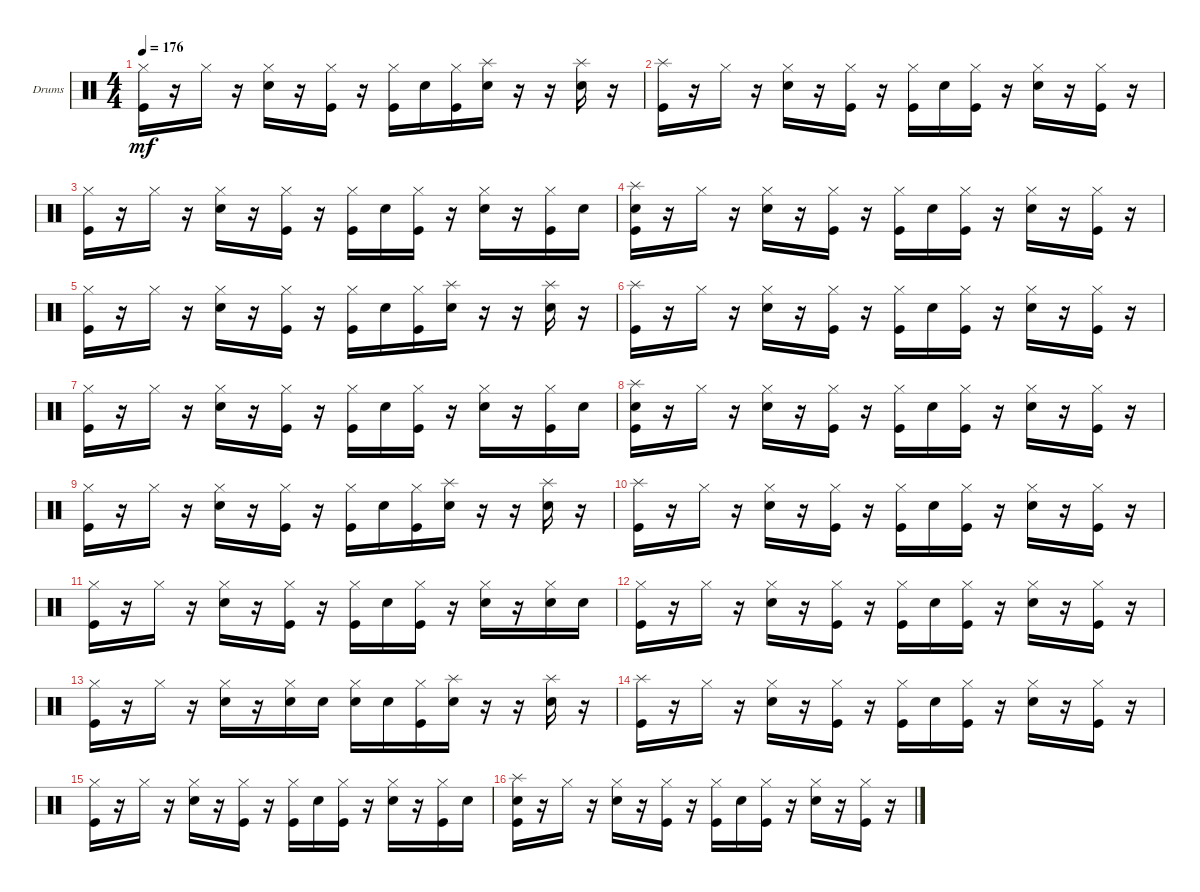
\defaultSystemsLayout 4
\bracketExtendMode groupsimilarinstruments
\firstSystemTrackNameOrientation horizontal
\otherSystemsTrackNameOrientation horizontal
\track ("Drumkit" "Drums") {instrument percussion}
\staff {score}
\articulation defaults
\ts (4 4)
\tempo 176
\clef neutral
\scale
0.333333
\ks c
("Hi-Hat (closed)" "Kick (hit)").16{dy mf} r.16 "Hi-Hat (closed)".16 r.16 ("Hi-Hat (closed)" "Snare (hit) 2").16 r.16 ("Hi-Hat (closed)" "Kick (hit)").16 r.16 ("Hi-Hat (closed)" "Kick (hit)").16 "Snare (hit) 2".16 ("Hi-Hat (closed)" "Kick (hit)").16 ("Splash (hit)" "Snare (hit) 2").16 r.16 r.16 ("Splash (hit)" "Snare (hit) 2").16 r.16 |
\scale
0.333333 ("Splash (hit)" "Kick (hit)").16 r.16 "Hi-Hat (closed)".16 r.16 ("Hi-Hat (closed)" "Snare (hit) 2").16 r.16 ("Hi-Hat (closed)" "Kick (hit)").16 r.16 ("Hi-Hat (closed)" "Kick (hit)").16 "Snare (hit) 2".16 ("Hi-Hat (closed)" "Kick (hit)").16 r.16 ("Hi-Hat (closed)" "Snare (hit) 2").16 r.16 ("Hi-Hat (closed)" "Kick (hit)").16 r.16 |
("Hi-Hat (closed)" "Kick (hit)").16 r.16 "Hi-Hat (closed)".16 r.16 ("Hi-Hat (closed)" "Snare (hit) 2").16 r.16 ("Hi-Hat (closed)" "Kick (hit)").16 r.16 ("Hi-Hat (closed)" "Kick (hit)").16 "Snare (hit) 2".16 ("Hi-Hat (closed)" "Kick (hit)").16 r.16 ("Hi-Hat (closed)" "Snare (hit) 2").16 r.16 ("Hi-Hat (closed)" "Kick (hit)").16 "Snare (hit) 2".16 |
("Kick (hit)" "Snare (hit) 2" "Splash (hit)").16 r.16 "Hi-Hat (closed)".16 r.16 ("Hi-Hat (closed)" "Snare (hit) 2").16 r.16 ("Hi-Hat (closed)" "Kick (hit)").16 r.16 ("Hi-Hat (closed)" "Kick (hit)").16 "Snare (hit) 2".16 ("Hi-Hat (closed)" "Kick (hit)").16 r.16 ("Hi-Hat (closed)" "Snare (hit) 2").16 r.16 ("Hi-Hat (closed)" "Kick (hit)").16 r.16 |
("Hi-Hat (closed)" "Kick (hit)").16 r.16 "Hi-Hat (closed)".16 r.16 ("Hi-Hat (closed)" "Snare (hit) 2").16 r.16 ("Hi-Hat (closed)" "Kick (hit)").16 r.16 ("Hi-Hat (closed)" "Kick (hit)").16 "Snare (hit) 2".16 ("Hi-Hat (closed)" "Kick (hit)").16 ("Splash (hit)" "Snare (hit) 2").16 r.16 r.16 ("Splash (hit)" "Snare (hit) 2").16 r.16 |
("Splash (hit)" "Kick (hit)").16 r.16 "Hi-Hat (closed)".16 r.16 ("Hi-Hat (closed)" "Snare (hit) 2").16 r.16 ("Hi-Hat (closed)" "Kick (hit)").16 r.16 ("Hi-Hat (closed)" "Kick (hit)").16 "Snare (hit) 2".16 ("Hi-Hat (closed)" "Kick (hit)").16 r.16 ("Hi-Hat (closed)" "Snare (hit) 2").16 r.16 ("Hi-Hat (closed)" "Kick (hit)").16 r.16 |
("Hi-Hat (closed)" "Kick (hit)").16 r.16 "Hi-Hat (closed)".16 r.16 ("Hi-Hat (closed)" "Snare (hit) 2").16 r.16 ("Hi-Hat (closed)" "Kick (hit)").16 r.16 ("Hi-Hat (closed)" "Kick (hit)").16 "Snare (hit) 2".16 ("Hi-Hat (closed)" "Kick (hit)").16 r.16 ("Hi-Hat (closed)" "Snare (hit) 2").16 r.16 ("Hi-Hat (closed)" "Kick (hit)").16 "Snare (hit) 2".16 |
("Kick (hit)" "Snare (hit) 2" "Splash (hit)").16 r.16 "Hi-Hat (closed)".16 r.16 ("Hi-Hat (closed)" "Snare (hit) 2").16 r.16 ("Hi-Hat (closed)" "Kick (hit)").16 r.16 ("Hi-Hat (closed)" "Kick (hit)").16 "Snare (hit) 2".16 ("Hi-Hat (closed)" "Kick (hit)").16 r.16 ("Hi-Hat (closed)" "Snare (hit) 2").16 r.16 ("Hi-Hat (closed)" "Kick (hit)").16 r.16 |
("Hi-Hat (closed)" "Kick (hit)").16 r.16 "Hi-Hat (closed)".16 r.16 ("Hi-Hat (closed)" "Snare (hit) 2").16 r.16 ("Hi-Hat (closed)" "Kick (hit)").16 r.16 ("Hi-Hat (closed)" "Kick (hit)").16 "Snare (hit) 2".16 ("Hi-Hat (closed)" "Kick (hit)").16 ("Splash (hit)" "Snare (hit) 2").16 r.16 r.16 ("Splash (hit)" "Snare (hit) 2").16 r.16 |
("Splash (hit)" "Kick (hit)").16 r.16 "Hi-Hat (closed)".16 r.16 ("Hi-Hat (closed)" "Snare (hit) 2").16 r.16 ("Hi-Hat (closed)" "Kick (hit)").16 r.16 ("Hi-Hat (closed)" "Kick (hit)").16 "Snare (hit) 2".16 ("Hi-Hat (closed)" "Kick (hit)").16 r.16 ("Hi-Hat (closed)" "Snare (hit) 2").16 r.16 ("Hi-Hat (closed)" "Kick (hit)").16 r.16 |
("Hi-Hat (closed)" "Kick (hit)").16 r.16 "Hi-Hat (closed)".16 r.16 ("Hi-Hat (closed)" "Snare (hit) 2").16 r.16 ("Hi-Hat (closed)" "Kick (hit)").16 r.16 ("Hi-Hat (closed)" "Kick (hit)").16 "Snare (hit) 2".16 ("Hi-Hat (closed)" "Kick (hit)").16 r.16 ("Hi-Hat (closed)" "Snare (hit) 2").16 r.16 ("Hi-Hat (closed)" "Snare (hit) 2").16 "Snare (hit) 2".16 |
("Hi-Hat (closed)" "Kick (hit)").16 r.16 "Hi-Hat (closed)".16 r.16 ("Hi-Hat (closed)" "Snare (hit) 2").16 r.16 ("Hi-Hat (closed)" "Kick (hit)").16 r.16 ("Hi-Hat (closed)" "Kick (hit)").16 "Snare (hit) 2".16 ("Hi-Hat (closed)" "Kick (hit)").16 r.16 ("Hi-Hat (closed)" "Snare (hit) 2").16 r.16 ("Hi-Hat (closed)" "Kick (hit)").16 r.16 |
("Hi-Hat (closed)" "Kick (hit)").16 r.16 "Hi-Hat (closed)".16 r.16 ("Hi-Hat (closed)" "Snare (hit) 2").16 r.16 ("Hi-Hat (closed)" "Snare (hit) 2").16 "Snare (hit) 2".16 ("Hi-Hat (closed)" "Snare (hit) 2").16 "Snare (hit) 2".16 ("Hi-Hat (closed)" "Kick (hit)").16 ("Splash (hit)" "Snare (hit) 2").16 r.16 r.16 ("Splash (hit)" "Snare (hit) 2").16 r.16 |
("Splash (hit)" "Kick (hit)").16 r.16 "Hi-Hat (closed)".16 r.16 ("Hi-Hat (closed)" "Snare (hit) 2").16 r.16 ("Hi-Hat (closed)" "Kick (hit)").16 r.16 ("Hi-Hat (closed)" "Kick (hit)").16 "Snare (hit) 2".16 ("Hi-Hat (closed)" "Kick (hit)").16 r.16 ("Hi-Hat (closed)" "Snare (hit) 2").16 r.16 ("Hi-Hat (closed)" "Kick (hit)").16 r.16 |
("Hi-Hat (closed)" "Kick (hit)").16 r.16 "Hi-Hat (closed)".16 r.16 ("Hi-Hat (closed)" "Snare (hit) 2").16 r.16 ("Hi-Hat (closed)" "Kick (hit)").16 r.16 ("Hi-Hat (closed)" "Kick (hit)").16 "Snare (hit) 2".16 ("Hi-Hat (closed)" "Kick (hit)").16 r.16 ("Hi-Hat (closed)" "Snare (hit) 2").16 r.16 ("Hi-Hat (closed)" "Kick (hit)").16 "Snare (hit) 2".16 |
("Kick (hit)" "Snare (hit) 2" "Splash (hit)").16 r.16 "Hi-Hat (closed)".16 r.16 ("Hi-Hat (closed)" "Snare (hit) 2").16 r.16 ("Hi-Hat (closed)" "Kick (hit)").16 r.16 ("Hi-Hat (closed)" "Kick (hit)").16 "Snare (hit) 2".16 ("Hi-Hat (closed)" "Kick (hit)").16 r.16 ("Hi-Hat (closed)" "Snare (hit) 2").16 r.16 ("Hi-Hat (closed)" "Kick (hit)").16 r.16
